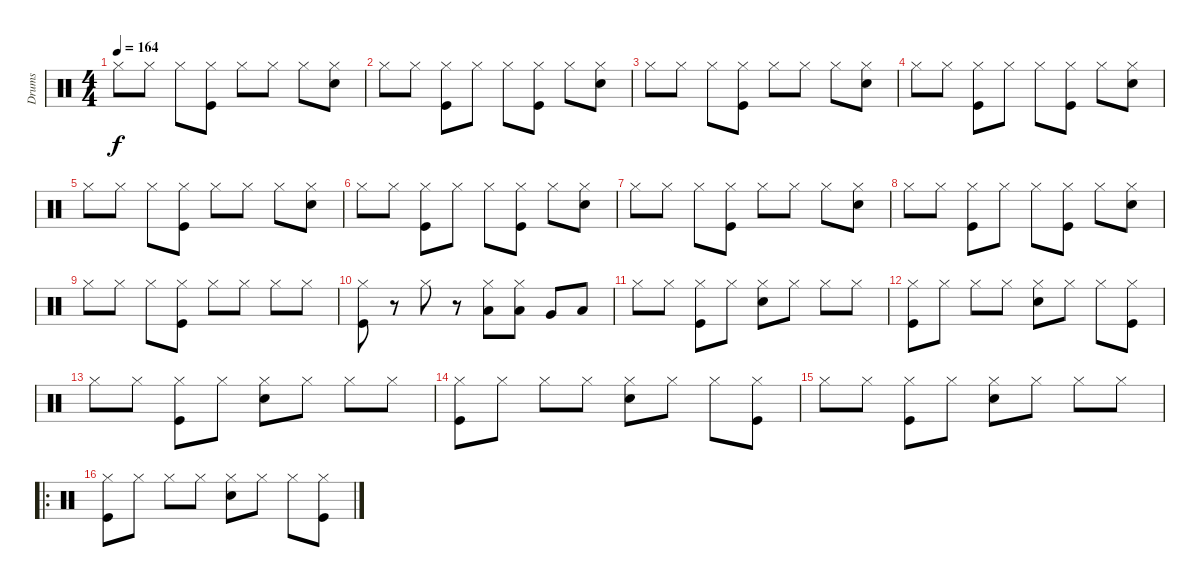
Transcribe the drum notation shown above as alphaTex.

\track ("Drums" "Drums") {instrument percussion}
\staff {score}
\articulation defaults
\ts (4 4)
\tempo 164
\clef neutral
\ks c "Hi-Hat (closed)".8{dy f} "Hi-Hat (closed)".8 "Hi-Hat (closed)".8
("Kick (hit)" "Hi-Hat (closed)").8 "Hi-Hat (closed)".8 "Hi-Hat (closed)".8 "Hi-Hat (closed)".8 ("Snare (hit) 2" "Hi-Hat (closed)").8 |
"Hi-Hat (closed)".8 "Hi-Hat (closed)".8 ("Kick (hit)" "Hi-Hat (closed)").8 "Hi-Hat (closed)".8 "Hi-Hat (closed)".8 ("Kick (hit)" "Hi-Hat (closed)").8 "Hi-Hat (closed)".8 ("Snare (hit) 2" "Hi-Hat (closed)").8 |
"Hi-Hat (closed)".8 "Hi-Hat (closed)".8 "Hi-Hat (closed)".8 ("Kick (hit)" "Hi-Hat (closed)").8 "Hi-Hat (closed)".8 "Hi-Hat (closed)".8 "Hi-Hat (closed)".8 ("Snare (hit) 2" "Hi-Hat (closed)").8 |
"Hi-Hat (closed)".8 "Hi-Hat (closed)".8 ("Kick (hit)" "Hi-Hat (closed)").8 "Hi-Hat (closed)".8 "Hi-Hat (closed)".8 ("Kick (hit)" "Hi-Hat (closed)").8 "Hi-Hat (closed)".8 ("Snare (hit) 2" "Hi-Hat (closed)").8 |
"Hi-Hat (closed)".8 "Hi-Hat (closed)".8 "Hi-Hat (closed)".8 ("Kick (hit)" "Hi-Hat (closed)").8 "Hi-Hat (closed)".8 "Hi-Hat (closed)".8 "Hi-Hat (closed)".8 ("Snare (hit) 2" "Hi-Hat (closed)").8 |
"Hi-Hat (closed)".8 "Hi-Hat (closed)".8 ("Kick (hit)" "Hi-Hat (closed)").8 "Hi-Hat (closed)".8 "Hi-Hat (closed)".8 ("Kick (hit)" "Hi-Hat (closed)").8 "Hi-Hat (closed)".8 ("Snare (hit) 2" "Hi-Hat (closed)").8 |
"Hi-Hat (closed)".8 "Hi-Hat (closed)".8 "Hi-Hat (closed)".8 ("Kick (hit)" "Hi-Hat (closed)").8 "Hi-Hat (closed)".8 "Hi-Hat (closed)".8 "Hi-Hat (closed)".8 ("Snare (hit) 2" "Hi-Hat (closed)").8 |
"Hi-Hat (closed)".8 "Hi-Hat (closed)".8 ("Kick (hit)" "Hi-Hat (closed)").8 "Hi-Hat (closed)".8 "Hi-Hat (closed)".8 ("Kick (hit)" "Hi-Hat (closed)").8 "Hi-Hat (closed)".8 ("Snare (hit) 2" "Hi-Hat (closed)").8 |
"Hi-Hat (closed)".8 "Hi-Hat (closed)".8 "Hi-Hat (closed)".8 ("Kick (hit)" "Hi-Hat (closed)").8 "Hi-Hat (closed)".8 "Hi-Hat (closed)".8 "Hi-Hat (closed)".8 "Hi-Hat (closed)".8 |
("Kick (hit)" "Hi-Hat (closed)").8 r.8 "Hi-Hat (closed)".8 r.8 ("Low Tom (hit)" "Hi-Hat (closed)").8 ("Low Tom (hit)" "Hi-Hat (closed)").8 "Very Low Tom (hit)".8 "Low Floor Tom (hit)".8 |
"Hi-Hat (closed)".8 "Hi-Hat (closed)".8 ("Kick (hit)" "Hi-Hat (closed)").8 "Hi-Hat (closed)".8 ("Snare (hit) 2" "Hi-Hat (closed)").8 "Hi-Hat (closed)".8 "Hi-Hat (closed)".8 "Hi-Hat (closed)".8 |
("Kick (hit)" "Hi-Hat (closed)").8 "Hi-Hat (closed)".8 "Hi-Hat (closed)".8 "Hi-Hat (closed)".8 ("Snare (hit) 2" "Hi-Hat (closed)").8 "Hi-Hat (closed)".8 "Hi-Hat (closed)".8 ("Kick (hit)" "Hi-Hat (closed)").8 |
"Hi-Hat (closed)".8 "Hi-Hat (closed)".8 ("Kick (hit)" "Hi-Hat (closed)").8 "Hi-Hat (closed)".8 ("Snare (hit) 2" "Hi-Hat (closed)").8 "Hi-Hat (closed)".8 "Hi-Hat (closed)".8 "Hi-Hat (closed)".8 |
("Kick (hit)" "Hi-Hat (closed)").8 "Hi-Hat (closed)".8 "Hi-Hat (closed)".8 "Hi-Hat (closed)".8 ("Snare (hit) 2" "Hi-Hat (closed)").8 "Hi-Hat (closed)".8 "Hi-Hat (closed)".8 ("Kick (hit)" "Hi-Hat (closed)").8 |
"Hi-Hat (closed)".8 "Hi-Hat (closed)".8 ("Kick (hit)" "Hi-Hat (closed)").8 "Hi-Hat (closed)".8 ("Snare (hit) 2" "Hi-Hat (closed)").8 "Hi-Hat (closed)".8 "Hi-Hat (closed)".8 "Hi-Hat (closed)".8 |
\ro
("Kick (hit)" "Hi-Hat (closed)").8 "Hi-Hat (closed)".8 "Hi-Hat (closed)".8 "Hi-Hat (closed)".8 ("Snare (hit) 2" "Hi-Hat (closed)").8 "Hi-Hat (closed)".8 "Hi-Hat (closed)".8 ("Kick (hit)" "Hi-Hat (closed)").8
